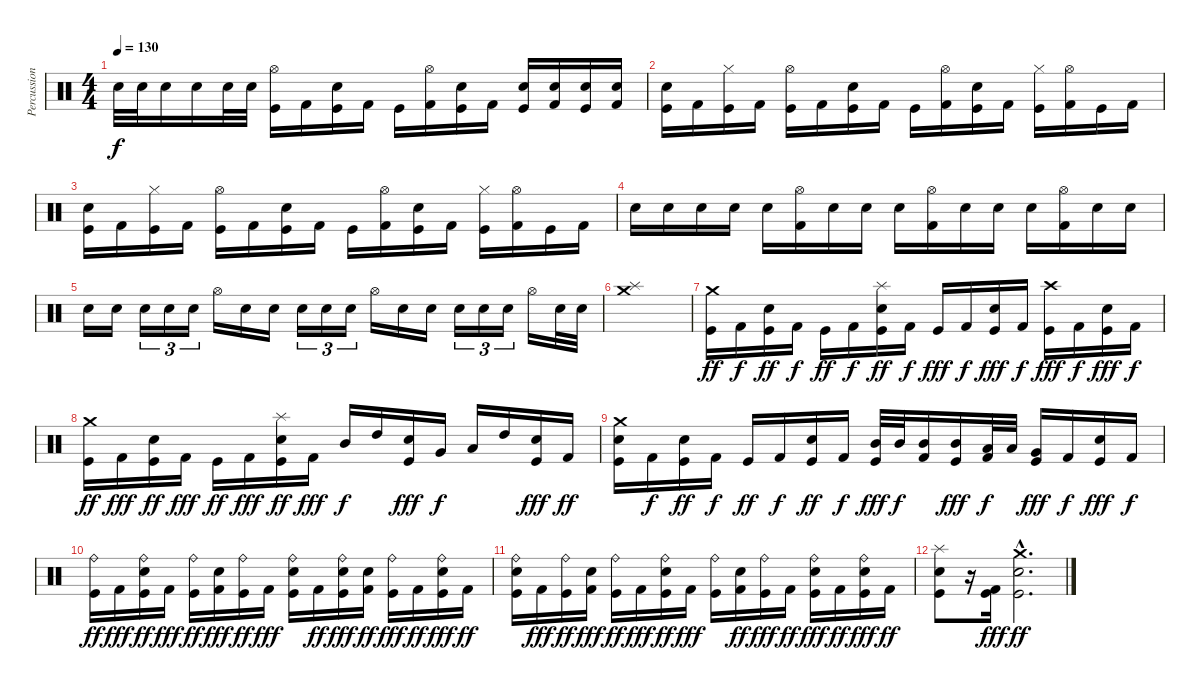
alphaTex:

\track ("Percussioni" "Percussion") {instrument percussion}
\staff {score}
\articulation defaults
\ts (4 4)
\tempo 130
\clef neutral
\ks c "Snare (hit) 2".32{dy f} "Snare (hit) 2".32 "Snare (hit) 2".16 "Snare (hit) 2".16 "Snare (hit) 2".32 "Snare (hit) 2".32
("Hi-Hat (open)" "Kick (hit)").16 "Kick (hit) 2".16 ("Snare (hit) 2" "Kick (hit)").16 "Kick (hit) 2".16 "Kick (hit)".16 ("Hi-Hat (open)" "Kick (hit) 2").16 ("Snare (hit) 2" "Kick (hit)").16 "Kick (hit) 2".16 ("Snare (hit) 2" "Kick (hit)").16 ("Snare (hit) 2" "Kick (hit) 2").16 ("Snare (hit) 2" "Kick (hit)").16 ("Snare (hit) 2" "Kick (hit) 2").16 |
("Snare (hit) 2" "Kick (hit)").16 "Kick (hit) 2".16 ("Hi-Hat (closed)" "Kick (hit)").16 "Kick (hit) 2".16 ("Hi-Hat (open)" "Kick (hit)").16 "Kick (hit) 2".16 ("Snare (hit) 2" "Kick (hit)").16 "Kick (hit) 2".16 "Kick (hit)".16 ("Hi-Hat (open)" "Kick (hit) 2").16 ("Snare (hit) 2" "Kick (hit)").16 "Kick (hit) 2".16 ("Hi-Hat (closed)" "Kick (hit)").16 ("Hi-Hat (open)" "Kick (hit) 2").16 "Kick (hit)".16 "Kick (hit) 2".16 |
("Snare (hit) 2" "Kick (hit)").16 "Kick (hit) 2".16 ("Hi-Hat (closed)" "Kick (hit)").16 "Kick (hit) 2".16 ("Hi-Hat (open)" "Kick (hit)").16 "Kick (hit) 2".16 ("Snare (hit) 2" "Kick (hit)").16 "Kick (hit) 2".16 "Kick (hit)".16 ("Hi-Hat (open)" "Kick (hit) 2").16 ("Snare (hit) 2" "Kick (hit)").16 "Kick (hit) 2".16 ("Hi-Hat (closed)" "Kick (hit)").16 ("Hi-Hat (open)" "Kick (hit) 2").16 "Kick (hit)".16 "Kick (hit) 2".16 |
"Snare (hit) 2".16 "Snare (hit) 2".16 "Snare (hit) 2".16 "Snare (hit) 2".16 "Snare (hit) 2".16 ("Hi-Hat (open)" "Kick (hit) 2").16 "Snare (hit) 2".16 "Snare (hit) 2".16 "Snare (hit) 2".16 ("Hi-Hat (open)" "Kick (hit) 2").16 "Snare (hit) 2".16 "Snare (hit) 2".16 "Snare (hit) 2".16 ("Hi-Hat (open)" "Kick (hit) 2").16 "Snare (hit) 2".16 "Snare (hit) 2".16 |
"Snare (hit) 2".16 "Snare (hit) 2".16 "Snare (hit) 2".16{tu (3 2)} "Snare (hit) 2".16{tu (3 2)} "Snare (hit) 2".16{tu (3 2)} "Hi-Hat (open)".16 "Snare (hit) 2".16 "Snare (hit) 2".16 "Snare (hit) 2".16{tu (3 2)} "Snare (hit) 2".16{tu (3 2)} "Snare (hit) 2".16{tu (3 2)} "Hi-Hat (open)".16 "Snare (hit) 2".16 "Snare (hit) 2".16 "Snare (hit) 2".16{tu (3 2)} "Snare (hit) 2".16{tu (3 2)} "Snare (hit) 2".16{tu (3 2)} "Hi-Hat (open)".16 "Snare (hit) 2".32 "Snare (hit) 2".32 |
("Splash (hit)" "Crash medium (hit)").1 |
("Crash medium (hit)" "Kick (hit)").16{dy ff} "Kick (hit) 2".16{dy f} ("Snare (hit) 2" "Kick (hit)").16{dy ff} "Kick (hit) 2".16{dy f} "Kick (hit)".16{dy ff} "Kick (hit) 2".16{dy f} ("Splash (hit)" "Snare (hit) 2" "Kick (hit)").16{dy ff} "Kick (hit) 2".16{dy f} "Kick (hit)".16{dy fff} "Kick (hit) 2".16{dy f} ("Snare (hit) 2" "Kick (hit)").16{dy fff} "Kick (hit) 2".16{dy f} ("Crash high (hit)" "Kick (hit)").16{dy fff} "Kick (hit) 2".16{dy f} ("Snare (hit) 2" "Kick (hit)").16{dy fff} "Kick (hit) 2".16{dy f} |
("Crash medium (hit)" "Kick (hit)").16{dy ff} "Kick (hit) 2".16{dy fff} ("Snare (hit) 2" "Kick (hit)").16{dy ff} "Kick (hit) 2".16{dy fff} "Kick (hit)".16{dy ff} "Kick (hit) 2".16{dy fff} ("Splash (hit)" "Snare (hit) 2" "Kick (hit)").16{dy ff} "Kick (hit) 2".16{dy fff} "Mid Tom (hit)".16{dy f} "High Tom (hit)".16 ("Snare (hit) 2" "Kick (hit)").16{dy fff} "Very Low Tom (hit)".16{dy f} "Low Tom (hit)".16 "High Tom (hit)".16 ("Snare (hit) 2" "Kick (hit)").16{dy fff} "Kick (hit) 2".16{dy ff} |
("Crash medium (hit)" "Snare (hit) 2" "Kick (hit)").16 "Kick (hit) 2".16{dy f} ("Snare (hit) 2" "Kick (hit)").16{dy ff} "Kick (hit) 2".16{dy f} "Kick (hit)".16{dy ff} "Kick (hit) 2".16{dy f} ("Snare (hit) 2" "Kick (hit)").16{dy ff} "Kick (hit) 2".16{dy f} ("Mid Tom (hit)" "Kick (hit)").32{dy fff} "Mid Tom (hit)".32{dy f} ("Mid Tom (hit)" "Kick (hit) 2").16 ("Mid Tom (hit)" "Kick (hit)").16{dy fff} ("Low Tom (hit)" "Kick (hit) 2").32{dy f} "Low Tom (hit)".32 ("Very Low Tom (hit)" "Kick (hit)").16{dy fff} "Kick (hit) 2".16{dy f} ("Snare (hit) 2" "Kick (hit)").16{dy fff} "Kick (hit) 2".16{dy f} |
("Ride (bell)" "Kick (hit)").16{dy ff} "Kick (hit) 2".16{dy fff} ("Ride (bell)" "Snare (hit) 2" "Kick (hit)").16{dy ff} "Kick (hit) 2".16{dy fff} ("Ride (bell)" "Kick (hit)").16{dy ff} ("Snare (hit) 2" "Kick (hit) 2").16{dy fff} ("Ride (bell)" "Kick (hit)").16{dy ff} "Kick (hit) 2".16{dy fff} ("Ride (bell)" "Snare (hit) 2" "Kick (hit)").16 "Kick (hit) 2".16{dy ff} ("Ride (bell)" "Snare (hit) 2" "Kick (hit)").16{dy fff} ("Snare (hit) 2" "Kick (hit) 2").16{dy ff} ("Ride (bell)" "Kick (hit)").16{dy fff} "Kick (hit) 2".16{dy ff} ("Ride (bell)" "Snare (hit) 2" "Kick (hit)").16{dy fff} "Kick (hit) 2".16{dy ff} |
("Ride (bell)" "Snare (hit) 2" "Kick (hit)").16 "Kick (hit) 2".16{dy fff} ("Ride (bell)" "Kick (hit)").16{dy ff} ("Snare (hit) 2" "Kick (hit) 2").16{dy fff} ("Ride (bell)" "Kick (hit)").16{dy ff} "Kick (hit) 2".16{dy fff} ("Ride (bell)" "Snare (hit) 2" "Kick (hit)").16{dy ff} "Kick (hit) 2".16{dy fff} ("Ride (bell)" "Kick (hit)").16 ("Snare (hit) 2" "Kick (hit) 2").16{dy ff} ("Ride (bell)" "Kick (hit)").16{dy fff} "Kick (hit) 2".16{dy ff} ("Ride (bell)" "Snare (hit) 2" "Kick (hit)").16{dy fff} "Kick (hit) 2".16{dy ff} ("Ride (bell)" "Snare (hit) 2" "Kick (hit)").16{dy fff} "Kick (hit) 2".16{dy ff} |
("Splash (hit)" "Snare (hit) 2" "Kick (hit)").8 r.16 ("Kick (hit) 2" "Kick (hit)").16{dy fff} ("Crash medium (hit)"{hac} "Snare (hit) 2"{hac} "Kick (hit)"{hac}).2{d dy ff}
